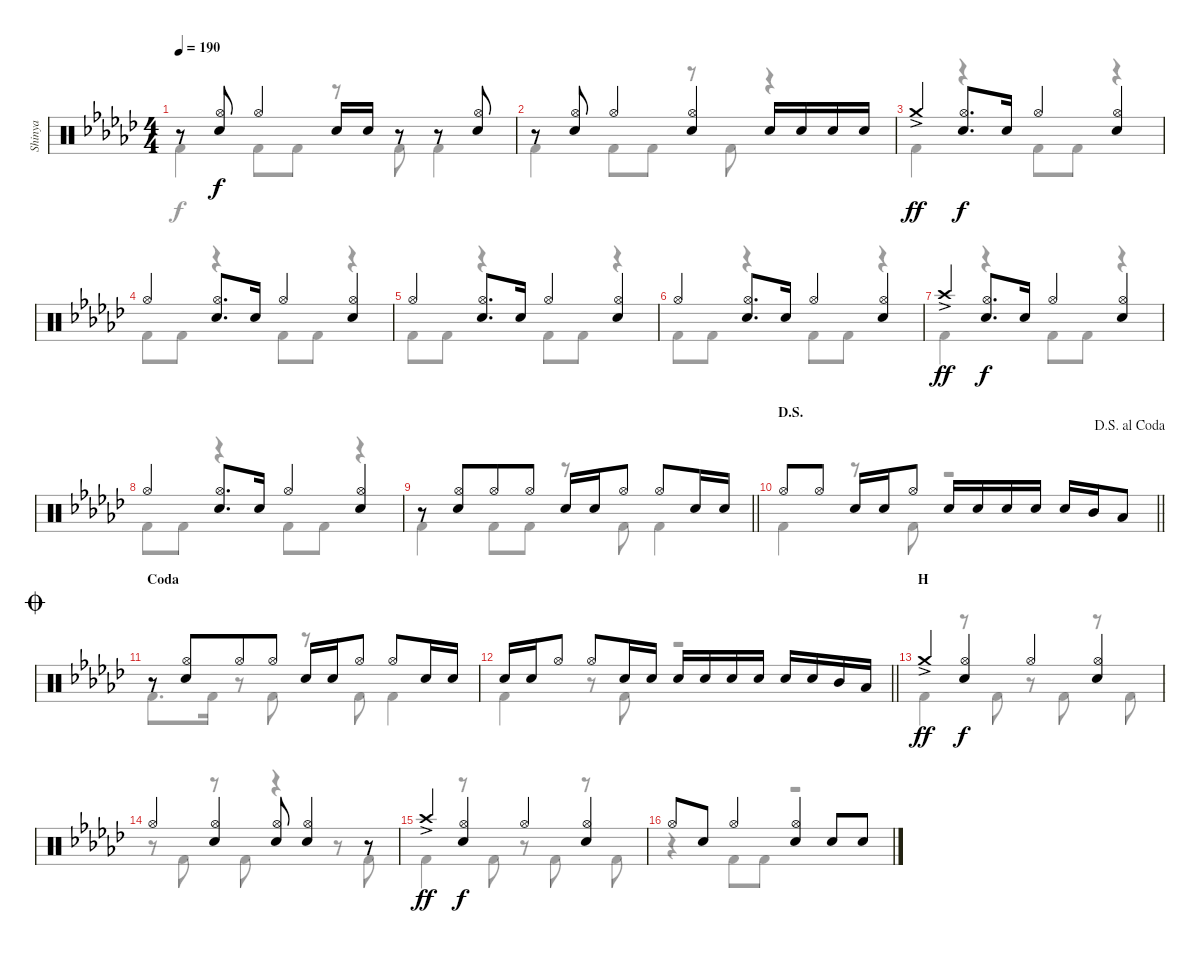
\track ("Shinya" "Shinya") {instrument percussion}
\staff {score}
\articulation defaults
\voice
\ts (4 4)
\tempo 190
\clef neutral
\ks ebminor
r.8{dy f} ("Hi-Hat (open)" "Snare (hit) 2").8 "Hi-Hat (open)".4 "Snare (hit) 2".16 "Snare (hit) 2".16 r.8 r.8 ("Hi-Hat (open)" "Snare (hit) 2").8 |
r.8 ("Hi-Hat (open)" "Snare (hit) 2").8 "Hi-Hat (open)".4 ("Hi-Hat (open)" "Snare (hit) 2").4 "Snare (hit) 2".16 "Snare (hit) 2".16 "Snare (hit) 2".16 "Snare (hit) 2".16 |
"Crash medium (hit)"{ac}.4{dy ff} ("Hi-Hat (open)" "Snare (hit) 2").8{d dy f} "Snare (hit) 2".16 "Hi-Hat (open)".4 ("Hi-Hat (open)" "Snare (hit) 2").4 |
"Hi-Hat (open)".4 ("Hi-Hat (open)" "Snare (hit) 2").8{d} "Snare (hit) 2".16 "Hi-Hat (open)".4 ("Hi-Hat (open)" "Snare (hit) 2").4 |
"Hi-Hat (open)".4 ("Hi-Hat (open)" "Snare (hit) 2").8{d} "Snare (hit) 2".16 "Hi-Hat (open)".4 ("Hi-Hat (open)" "Snare (hit) 2").4 |
"Hi-Hat (open)".4 ("Hi-Hat (open)" "Snare (hit) 2").8{d} "Snare (hit) 2".16 "Hi-Hat (open)".4 ("Hi-Hat (open)" "Snare (hit) 2").4 |
"Crash high (hit)"{ac}.4{dy ff} ("Hi-Hat (open)" "Snare (hit) 2").8{d dy f} "Snare (hit) 2".16 "Hi-Hat (open)".4 ("Hi-Hat (open)" "Snare (hit) 2").4 |
"Hi-Hat (open)".4 ("Hi-Hat (open)" "Snare (hit) 2").8{d} "Snare (hit) 2".16 "Hi-Hat (open)".4 ("Hi-Hat (open)" "Snare (hit) 2").4 |
\barLineRight lightlight
r.8 ("Hi-Hat (open)" "Snare (hit) 2").8{beam merge} "Hi-Hat (open)".8 "Hi-Hat (open)".8 "Snare (hit) 2".16 "Snare (hit) 2".16 "Hi-Hat (open)".8 "Hi-Hat (open)".8 "Snare (hit) 2".16 "Snare (hit) 2".16 |
\section ("" "D.S.")
\jump dalsegnoalcoda
\barLineRight lightlight "Hi-Hat (open)".8 "Hi-Hat (open)".8 "Snare (hit) 2".16 "Snare (hit) 2".16 "Hi-Hat (open)".8 "Snare (hit) 2".16 "Snare (hit) 2".16 "Snare (hit) 2".16 "Snare (hit) 2".16 "Snare (hit) 2".16 "Mid Tom (hit)".16 "Low Tom (hit)".8
|
\section ("" "Coda")
\jump coda
r.8 ("Hi-Hat (open)" "Snare (hit) 2").8{beam merge} "Hi-Hat (open)".8 "Hi-Hat (open)".8 "Snare (hit) 2".16 "Snare (hit) 2".16 "Hi-Hat (open)".8 "Hi-Hat (open)".8 "Snare (hit) 2".16 "Snare (hit) 2".16 |
\barLineRight lightlight "Snare (hit) 2".16 "Snare (hit) 2".16 "Hi-Hat (open)".8 "Hi-Hat (open)".8 "Snare (hit) 2".16 "Snare (hit) 2".16 "Snare (hit) 2".16 "Snare (hit) 2".16 "Snare (hit) 2".16 "Snare (hit) 2".16 "Snare (hit) 2".16 "Snare (hit) 2".16 "Mid Tom (hit)".16 "Low Tom (hit)".16
|
\section ("" "H")
"Crash medium (hit)"{ac}.4{dy ff} ("Hi-Hat (open)" "Snare (hit) 2").4{dy f} "Hi-Hat (open)".4 ("Hi-Hat (open)" "Snare (hit) 2").4 |
"Hi-Hat (open)".4 ("Hi-Hat (open)" "Snare (hit) 2").4 ("Hi-Hat (open)" "Snare (hit) 2").8 ("Hi-Hat (open)" "Snare (hit) 2").4 r.8 |
"Crash high (hit)"{ac}.4{dy ff} ("Hi-Hat (open)" "Snare (hit) 2").4{dy f} "Hi-Hat (open)".4 ("Hi-Hat (open)" "Snare (hit) 2").4 |
"Hi-Hat (open)".8 "Snare (hit) 2".8 "Hi-Hat (open)".4 ("Hi-Hat (open)" "Snare (hit) 2").4 "Snare (hit) 2".8 "Snare (hit) 2".8
\voice
\clef neutral
\ottava regular
\simile none
\ks ebminor "Kick (hit) 2".4{dy f} "Kick (hit) 2".8 "Kick (hit) 2".8
r.8 "Kick (hit) 2".8 "Kick (hit) 2".4 |
"Kick (hit) 2".4 "Kick (hit) 2".8 "Kick (hit) 2".8 r.8 "Kick (hit) 2".8 r.4 |
"Kick (hit) 2".4 r.4 "Kick (hit) 2".8 "Kick (hit) 2".8 r.4 |
"Kick (hit) 2".8 "Kick (hit) 2".8 r.4 "Kick (hit) 2".8 "Kick (hit) 2".8 r.4 |
"Kick (hit) 2".8 "Kick (hit) 2".8 r.4 "Kick (hit) 2".8 "Kick (hit) 2".8 r.4 |
"Kick (hit) 2".8 "Kick (hit) 2".8 r.4 "Kick (hit) 2".8 "Kick (hit) 2".8 r.4 |
"Kick (hit) 2".4 r.4 "Kick (hit) 2".8 "Kick (hit) 2".8 r.4 |
"Kick (hit) 2".8 "Kick (hit) 2".8 r.4 "Kick (hit) 2".8 "Kick (hit) 2".8 r.4 |
\barLineRight lightlight "Kick (hit) 2".4 "Kick (hit) 2".8 "Kick (hit) 2".8
r.8 "Kick (hit) 2".8 "Kick (hit) 2".4 |
\barLineRight lightlight "Kick (hit) 2".4
r.8 "Kick (hit) 2".8 r.2 |
"Kick (hit) 2".8{d} "Kick (hit) 2".16 r.8 "Kick (hit) 2".8 r.8 "Kick (hit) 2".8 "Kick (hit) 2".4 |
\barLineRight lightlight "Kick (hit) 2".4
r.8 "Kick (hit) 2".8 r.2 |
"Kick (hit) 2".4 r.8 "Kick (hit) 2".8 r.8 "Kick (hit) 2".8 r.8 "Kick (hit) 2".8 |
r.8 "Kick (hit) 2".8 r.8 "Kick (hit) 2".8 r.4 r.8 "Kick (hit) 2".8 |
"Kick (hit) 2".4 r.8 "Kick (hit) 2".8 r.8 "Kick (hit) 2".8 r.8 "Kick (hit) 2".8 |
r.4 "Kick (hit) 2".8 "Kick (hit) 2".8 r.2
